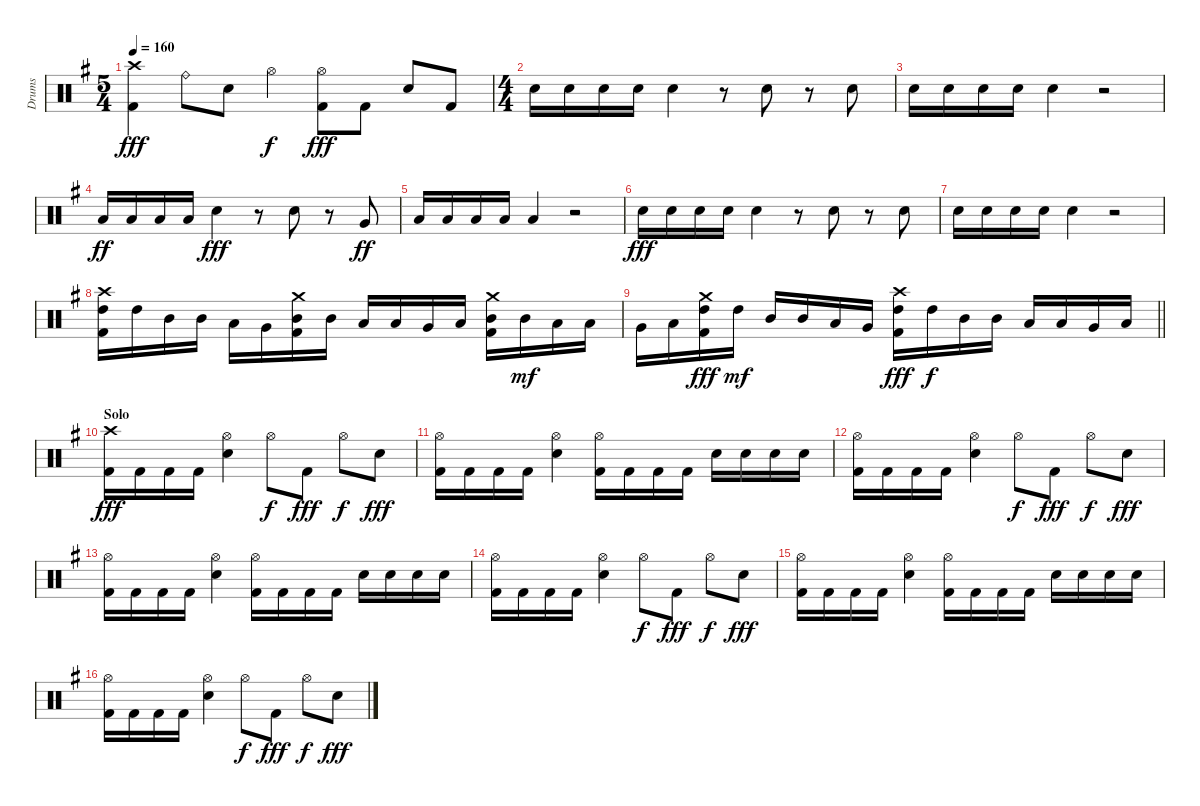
\track ("Drums" "Drums") {instrument percussion}
\staff {score}
\articulation defaults
\ts (5 4)
\tempo 160
\clef neutral
\ks g
("Crash high (hit)" "Kick (hit) 2").4{dy fff} "Ride (bell)".8 "Snare (hit) 2".8 "Hi-Hat (open)".4{dy f} ("Hi-Hat (open)" "Kick (hit) 2").8{dy fff} "Kick (hit) 2".8 "Snare (hit) 2".8 "Kick (hit) 2".8 |
\ts (4 4)
"Snare (hit) 2".16 "Snare (hit) 2".16 "Snare (hit) 2".16 "Snare (hit) 2".16 "Snare (hit) 2".4 r.8 "Snare (hit) 2".8 r.8 "Snare (hit) 2".8 |
"Snare (hit) 2".16 "Snare (hit) 2".16 "Snare (hit) 2".16 "Snare (hit) 2".16 "Snare (hit) 2".4 r.2 |
"Low Tom (hit)".16{dy ff} "Low Tom (hit)".16 "Low Tom (hit)".16 "Low Tom (hit)".16 "Snare (hit) 2".4{dy fff} r.8 "Snare (hit) 2".8 r.8 "Very Low Tom (hit)".8{dy ff} |
"Low Floor Tom (hit)".16 "Low Floor Tom (hit)".16 "Low Floor Tom (hit)".16 "Low Floor Tom (hit)".16 "Low Floor Tom (hit)".4 r.2 |
"Snare (hit) 2".16{dy fff} "Snare (hit) 2".16 "Snare (hit) 2".16 "Snare (hit) 2".16 "Snare (hit) 2".4 r.8 "Snare (hit) 2".8 r.8 "Snare (hit) 2".8 |
"Snare (hit) 2".16 "Snare (hit) 2".16 "Snare (hit) 2".16 "Snare (hit) 2".16 "Snare (hit) 2".4 r.2 |
("Crash high (hit)" "High Tom (hit)" "Kick (hit) 2").16{volume 8} "High Tom (hit)".16 "Mid Tom (hit)".16 "Mid Tom (hit)".16 "Low Tom (hit)".16 "Very Low Tom (hit)".16 ("Crash medium (hit)" "Mid Tom (hit)" "Kick (hit) 2").16 "Mid Tom (hit)".16 "Low Tom (hit)".16 "Low Tom (hit)".16 "Very Low Tom (hit)".16 "Low Floor Tom (hit)".16 ("Crash medium (hit)" "Mid Tom (hit)" "Kick (hit) 2").16 "Mid Tom (hit)".16{dy mf} "Low Tom (hit)".16 "Low Tom (hit)".16 |
\barLineRight lightlight "Very Low Tom (hit)".16 "Low Floor Tom (hit)".16
("Crash medium (hit)" "High Tom (hit)" "Kick (hit) 2").16{dy fff} "High Tom (hit)".16{dy mf} "Mid Tom (hit)".16 "Mid Tom (hit)".16 "Low Tom (hit)".16 "Very Low Tom (hit)".16 ("Crash high (hit)" "High Tom (hit)" "Kick (hit) 2").16{dy fff} "High Tom (hit)".16{dy f} "Mid Tom (hit)".16 "Mid Tom (hit)".16 "Low Tom (hit)".16 "Low Tom (hit)".16 "Very Low Tom (hit)".16 "Low Floor Tom (hit)".16 |
\section ("" "Solo")
("Crash high (hit)" "Kick (hit) 2").16{dy fff} "Kick (hit) 2".16 "Kick (hit) 2".16 "Kick (hit) 2".16 ("Hi-Hat (open)" "Snare (hit) 2").4 "Hi-Hat (open)".8{dy f} "Kick (hit) 2".8{dy fff} "Hi-Hat (open)".8{dy f} "Snare (hit) 2".8{dy fff} |
("Hi-Hat (open)" "Kick (hit) 2").16 "Kick (hit) 2".16 "Kick (hit) 2".16 "Kick (hit) 2".16 ("Hi-Hat (open)" "Snare (hit) 2").4 ("Hi-Hat (open)" "Kick (hit) 2").16 "Kick (hit) 2".16 "Kick (hit) 2".16 "Kick (hit) 2".16 "Snare (hit) 2".16 "Snare (hit) 2".16 "Snare (hit) 2".16 "Snare (hit) 2".16 |
("Hi-Hat (open)" "Kick (hit) 2").16 "Kick (hit) 2".16 "Kick (hit) 2".16 "Kick (hit) 2".16 ("Hi-Hat (open)" "Snare (hit) 2").4 "Hi-Hat (open)".8{dy f} "Kick (hit) 2".8{dy fff} "Hi-Hat (open)".8{dy f} "Snare (hit) 2".8{dy fff} |
("Hi-Hat (open)" "Kick (hit) 2").16 "Kick (hit) 2".16 "Kick (hit) 2".16 "Kick (hit) 2".16 ("Hi-Hat (open)" "Snare (hit) 2").4 ("Hi-Hat (open)" "Kick (hit) 2").16 "Kick (hit) 2".16 "Kick (hit) 2".16 "Kick (hit) 2".16 "Snare (hit) 2".16 "Snare (hit) 2".16 "Snare (hit) 2".16 "Snare (hit) 2".16 |
("Hi-Hat (open)" "Kick (hit) 2").16 "Kick (hit) 2".16 "Kick (hit) 2".16 "Kick (hit) 2".16 ("Hi-Hat (open)" "Snare (hit) 2").4 "Hi-Hat (open)".8{dy f} "Kick (hit) 2".8{dy fff} "Hi-Hat (open)".8{dy f} "Snare (hit) 2".8{dy fff} |
("Hi-Hat (open)" "Kick (hit) 2").16 "Kick (hit) 2".16 "Kick (hit) 2".16 "Kick (hit) 2".16 ("Hi-Hat (open)" "Snare (hit) 2").4 ("Hi-Hat (open)" "Kick (hit) 2").16 "Kick (hit) 2".16 "Kick (hit) 2".16 "Kick (hit) 2".16 "Snare (hit) 2".16 "Snare (hit) 2".16 "Snare (hit) 2".16 "Snare (hit) 2".16 |
("Hi-Hat (open)" "Kick (hit) 2").16 "Kick (hit) 2".16 "Kick (hit) 2".16 "Kick (hit) 2".16 ("Hi-Hat (open)" "Snare (hit) 2").4 "Hi-Hat (open)".8{dy f} "Kick (hit) 2".8{dy fff} "Hi-Hat (open)".8{dy f} "Snare (hit) 2".8{dy fff}
